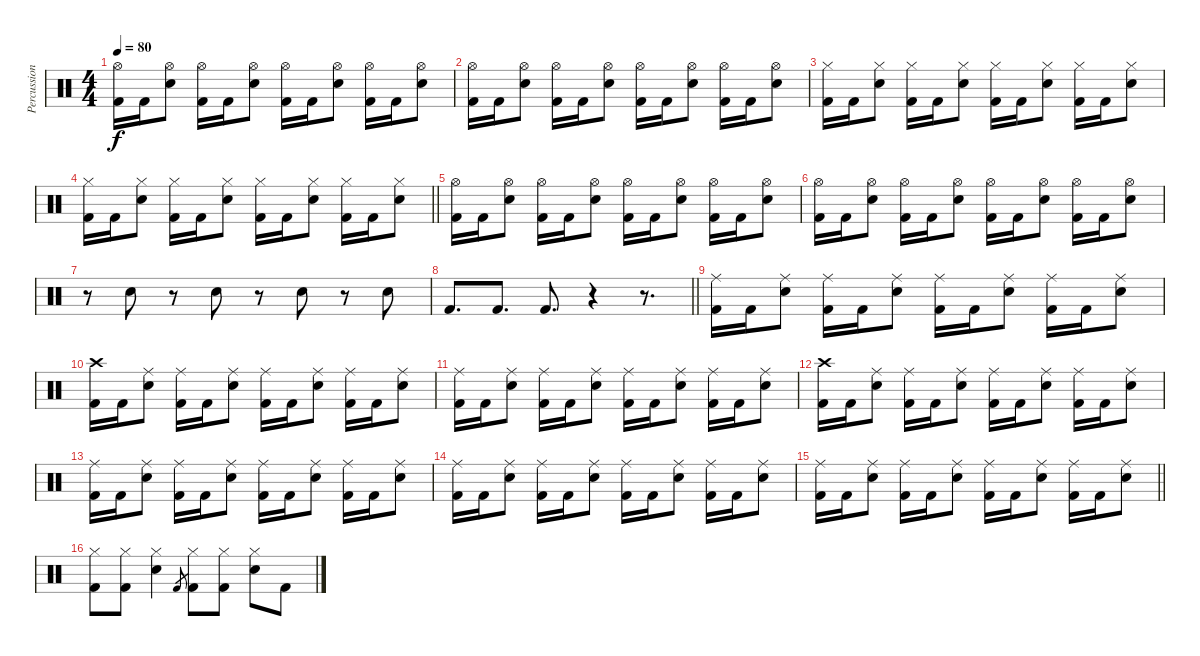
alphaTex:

\track ("Percussion" "Percussion") {instrument percussion}
\staff {score}
\articulation defaults
\ts (4 4)
\tempo 80
\clef neutral
\ks c
("Hi-Hat (open)" "Kick (hit) 2").16{dy f} "Kick (hit) 2".16 ("Hi-Hat (open)" "Snare (hit) 2").8 ("Hi-Hat (open)" "Kick (hit) 2").16 "Kick (hit) 2".16 ("Hi-Hat (open)" "Snare (hit) 2").8 ("Hi-Hat (open)" "Kick (hit) 2").16 "Kick (hit) 2".16 ("Hi-Hat (open)" "Snare (hit) 2").8 ("Hi-Hat (open)" "Kick (hit) 2").16 "Kick (hit) 2".16 ("Hi-Hat (open)" "Snare (hit) 2").8 |
("Hi-Hat (open)" "Kick (hit) 2").16 "Kick (hit) 2".16 ("Hi-Hat (open)" "Snare (hit) 2").8 ("Hi-Hat (open)" "Kick (hit) 2").16 "Kick (hit) 2".16 ("Hi-Hat (open)" "Snare (hit) 2").8 ("Hi-Hat (open)" "Kick (hit) 2").16 "Kick (hit) 2".16 ("Hi-Hat (open)" "Snare (hit) 2").8 ("Hi-Hat (open)" "Kick (hit) 2").16 "Kick (hit) 2".16 ("Hi-Hat (open)" "Snare (hit) 2").8 |
("Hi-Hat (closed)" "Kick (hit) 2").16 "Kick (hit) 2".16 ("Hi-Hat (closed)" "Snare (hit) 2").8 ("Hi-Hat (closed)" "Kick (hit) 2").16 "Kick (hit) 2".16 ("Hi-Hat (closed)" "Snare (hit) 2").8 ("Hi-Hat (closed)" "Kick (hit) 2").16 "Kick (hit) 2".16 ("Hi-Hat (closed)" "Snare (hit) 2").8 ("Hi-Hat (closed)" "Kick (hit) 2").16 "Kick (hit) 2".16 ("Hi-Hat (closed)" "Snare (hit) 2").8 |
\barLineRight lightlight
("Hi-Hat (closed)" "Kick (hit) 2").16 "Kick (hit) 2".16 ("Hi-Hat (closed)" "Snare (hit) 2").8 ("Hi-Hat (closed)" "Kick (hit) 2").16 "Kick (hit) 2".16 ("Hi-Hat (closed)" "Snare (hit) 2").8 ("Hi-Hat (closed)" "Kick (hit) 2").16 "Kick (hit) 2".16 ("Hi-Hat (closed)" "Snare (hit) 2").8 ("Hi-Hat (closed)" "Kick (hit) 2").16 "Kick (hit) 2".16 ("Hi-Hat (closed)" "Snare (hit) 2").8 |
("Hi-Hat (open)" "Kick (hit) 2").16 "Kick (hit) 2".16 ("Hi-Hat (open)" "Snare (hit) 2").8 ("Hi-Hat (open)" "Kick (hit) 2").16 "Kick (hit) 2".16 ("Hi-Hat (open)" "Snare (hit) 2").8 ("Hi-Hat (open)" "Kick (hit) 2").16 "Kick (hit) 2".16 ("Hi-Hat (open)" "Snare (hit) 2").8 ("Hi-Hat (open)" "Kick (hit) 2").16 "Kick (hit) 2".16 ("Hi-Hat (open)" "Snare (hit) 2").8 |
("Hi-Hat (open)" "Kick (hit) 2").16 "Kick (hit) 2".16 ("Hi-Hat (open)" "Snare (hit) 2").8 ("Hi-Hat (open)" "Kick (hit) 2").16 "Kick (hit) 2".16 ("Hi-Hat (open)" "Snare (hit) 2").8 ("Hi-Hat (open)" "Kick (hit) 2").16 "Kick (hit) 2".16 ("Hi-Hat (open)" "Snare (hit) 2").8 ("Hi-Hat (open)" "Kick (hit) 2").16 "Kick (hit) 2".16 ("Hi-Hat (open)" "Snare (hit) 2").8 |
r.8 "Snare (hit) 2".8 r.8 "Snare (hit) 2".8 r.8 "Snare (hit) 2".8 r.8 "Snare (hit) 2".8 |
\barLineRight lightlight "Kick (hit) 2".8{d} "Kick (hit) 2".8{d} "Kick (hit) 2".8{d}
r.4 r.8{d} |
("Ride (middle)" "Kick (hit) 2").16 "Kick (hit) 2".16 ("Ride (middle)" "Snare (hit) 2").8 ("Ride (middle)" "Kick (hit) 2").16 "Kick (hit) 2".16 ("Ride (middle)" "Snare (hit) 2").8 ("Ride (middle)" "Kick (hit) 2").16 "Kick (hit) 2".16 ("Ride (middle)" "Snare (hit) 2").8 ("Ride (middle)" "Kick (hit) 2").16 "Kick (hit) 2".16 ("Ride (middle)" "Snare (hit) 2").8 |
("Crash high (hit)" "Kick (hit) 2").16 "Kick (hit) 2".16 ("Ride (middle)" "Snare (hit) 2").8 ("Ride (middle)" "Kick (hit) 2").16 "Kick (hit) 2".16 ("Ride (middle)" "Snare (hit) 2").8 ("Ride (middle)" "Kick (hit) 2").16 "Kick (hit) 2".16 ("Ride (middle)" "Snare (hit) 2").8 ("Ride (middle)" "Kick (hit) 2").16 "Kick (hit) 2".16 ("Ride (middle)" "Snare (hit) 2").8 |
("Ride (middle)" "Kick (hit) 2").16 "Kick (hit) 2".16 ("Ride (middle)" "Snare (hit) 2").8 ("Ride (middle)" "Kick (hit) 2").16 "Kick (hit) 2".16 ("Ride (middle)" "Snare (hit) 2").8 ("Ride (middle)" "Kick (hit) 2").16 "Kick (hit) 2".16 ("Ride (middle)" "Snare (hit) 2").8 ("Ride (middle)" "Kick (hit) 2").16 "Kick (hit) 2".16 ("Ride (middle)" "Snare (hit) 2").8 |
("Crash high (hit)" "Kick (hit) 2").16 "Kick (hit) 2".16 ("Ride (middle)" "Snare (hit) 2").8 ("Ride (middle)" "Kick (hit) 2").16 "Kick (hit) 2".16 ("Ride (middle)" "Snare (hit) 2").8 ("Ride (middle)" "Kick (hit) 2").16 "Kick (hit) 2".16 ("Ride (middle)" "Snare (hit) 2").8 ("Ride (middle)" "Kick (hit) 2").16 "Kick (hit) 2".16 ("Ride (middle)" "Snare (hit) 2").8 |
("Ride (middle)" "Kick (hit) 2").16 "Kick (hit) 2".16 ("Ride (middle)" "Snare (hit) 2").8 ("Ride (middle)" "Kick (hit) 2").16 "Kick (hit) 2".16 ("Ride (middle)" "Snare (hit) 2").8 ("Ride (middle)" "Kick (hit) 2").16 "Kick (hit) 2".16 ("Ride (middle)" "Snare (hit) 2").8 ("Ride (middle)" "Kick (hit) 2").16 "Kick (hit) 2".16 ("Ride (middle)" "Snare (hit) 2").8 |
("Ride (middle)" "Kick (hit) 2").16 "Kick (hit) 2".16 ("Ride (middle)" "Snare (hit) 2").8 ("Ride (middle)" "Kick (hit) 2").16 "Kick (hit) 2".16 ("Ride (middle)" "Snare (hit) 2").8 ("Ride (middle)" "Kick (hit) 2").16 "Kick (hit) 2".16 ("Ride (middle)" "Snare (hit) 2").8 ("Ride (middle)" "Kick (hit) 2").16 "Kick (hit) 2".16 ("Ride (middle)" "Snare (hit) 2").8 |
\barLineRight lightlight
("Ride (middle)" "Kick (hit) 2").16 "Kick (hit) 2".16 ("Ride (middle)" "Snare (hit) 2").8 ("Ride (middle)" "Kick (hit) 2").16 "Kick (hit) 2".16 ("Ride (middle)" "Snare (hit) 2").8 ("Ride (middle)" "Kick (hit) 2").16 "Kick (hit) 2".16 ("Ride (middle)" "Snare (hit) 2").8 ("Ride (middle)" "Kick (hit) 2").16 "Kick (hit) 2".16 ("Ride (middle)" "Snare (hit) 2").8 |
("Hi-Hat (closed)" "Kick (hit) 2").8 ("Hi-Hat (closed)" "Kick (hit) 2").8 ("Hi-Hat (closed)" "Snare (hit) 2").4 "Kick (hit) 2".8{gr} ("Hi-Hat (closed)" "Kick (hit) 2").8 ("Hi-Hat (closed)" "Kick (hit) 2").8 ("Hi-Hat (closed)" "Snare (hit) 2").8 "Kick (hit) 2".8
